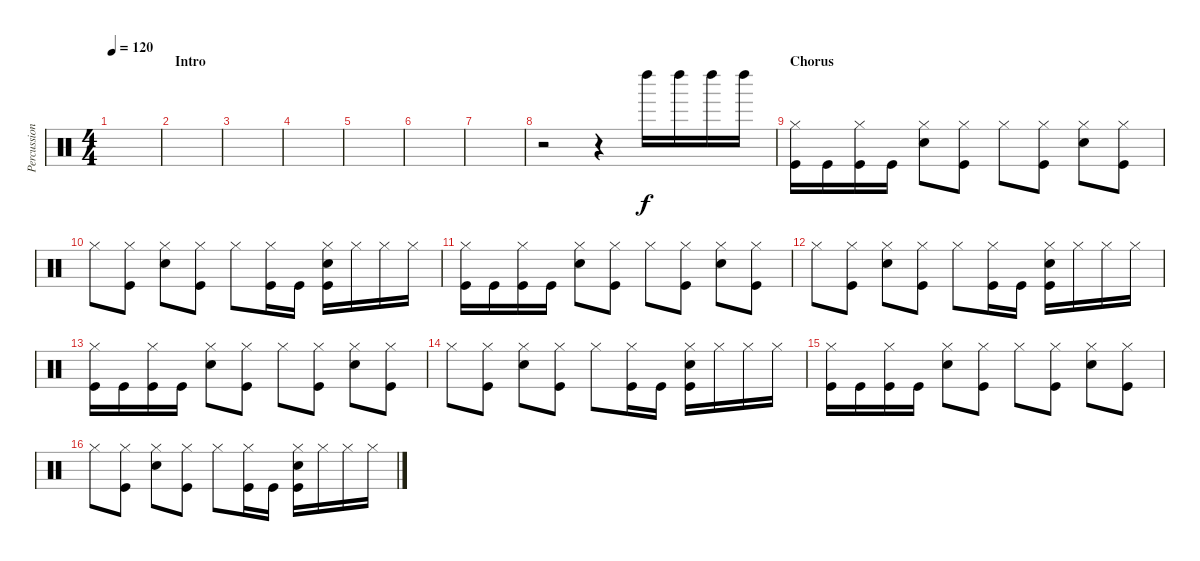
\track ("Percussion" "Percussion") {instrument percussion}
\staff {score}
\articulation defaults
\ts (4 4)
\tempo 120
\clef neutral
\ks c
|
\section ("" "Intro")
|
|
|
|
|
|
r.2 r.4 "Left Maraca (hit)".16 "Left Maraca (hit)".16 "Left Maraca (hit)".16 "Left Maraca (hit)".16 |
\section ("" "Chorus")
("Kick (hit)" "Hi-Hat (closed)").16 "Kick (hit)".16 ("Kick (hit)" "Hi-Hat (closed)").16 "Kick (hit)".16 ("Hi-Hat (closed)" "Hand Clap (hit)").8 ("Kick (hit)" "Hi-Hat (closed)").8 "Hi-Hat (closed)".8 ("Kick (hit)" "Hi-Hat (closed)").8 ("Hi-Hat (closed)" "Hand Clap (hit)").8 ("Kick (hit)" "Hi-Hat (closed)").8 |
"Hi-Hat (closed)".8 ("Kick (hit)" "Hi-Hat (closed)").8 ("Hi-Hat (closed)" "Hand Clap (hit)").8 ("Kick (hit)" "Hi-Hat (closed)").8 "Hi-Hat (closed)".8 ("Kick (hit)" "Hi-Hat (closed)").16 "Kick (hit)".16 ("Kick (hit)" "Hi-Hat (closed)" "Hand Clap (hit)").16 "Hi-Hat (closed)".16 "Hi-Hat (closed)".16 "Hi-Hat (closed)".16 |
("Kick (hit)" "Hi-Hat (closed)").16 "Kick (hit)".16 ("Kick (hit)" "Hi-Hat (closed)").16 "Kick (hit)".16 ("Hi-Hat (closed)" "Hand Clap (hit)").8 ("Kick (hit)" "Hi-Hat (closed)").8 "Hi-Hat (closed)".8 ("Kick (hit)" "Hi-Hat (closed)").8 ("Hi-Hat (closed)" "Hand Clap (hit)").8 ("Kick (hit)" "Hi-Hat (closed)").8 |
"Hi-Hat (closed)".8 ("Kick (hit)" "Hi-Hat (closed)").8 ("Hi-Hat (closed)" "Hand Clap (hit)").8 ("Kick (hit)" "Hi-Hat (closed)").8 "Hi-Hat (closed)".8 ("Kick (hit)" "Hi-Hat (closed)").16 "Kick (hit)".16 ("Kick (hit)" "Hi-Hat (closed)" "Hand Clap (hit)").16 "Hi-Hat (closed)".16 "Hi-Hat (closed)".16 "Hi-Hat (closed)".16 |
("Kick (hit)" "Hi-Hat (closed)").16 "Kick (hit)".16 ("Kick (hit)" "Hi-Hat (closed)").16 "Kick (hit)".16 ("Hi-Hat (closed)" "Hand Clap (hit)").8 ("Kick (hit)" "Hi-Hat (closed)").8 "Hi-Hat (closed)".8 ("Kick (hit)" "Hi-Hat (closed)").8 ("Hi-Hat (closed)" "Hand Clap (hit)").8 ("Kick (hit)" "Hi-Hat (closed)").8 |
"Hi-Hat (closed)".8 ("Kick (hit)" "Hi-Hat (closed)").8 ("Hi-Hat (closed)" "Hand Clap (hit)").8 ("Kick (hit)" "Hi-Hat (closed)").8 "Hi-Hat (closed)".8 ("Kick (hit)" "Hi-Hat (closed)").16 "Kick (hit)".16 ("Kick (hit)" "Hi-Hat (closed)" "Hand Clap (hit)").16 "Hi-Hat (closed)".16 "Hi-Hat (closed)".16 "Hi-Hat (closed)".16 |
("Kick (hit)" "Hi-Hat (closed)").16 "Kick (hit)".16 ("Kick (hit)" "Hi-Hat (closed)").16 "Kick (hit)".16 ("Hi-Hat (closed)" "Hand Clap (hit)").8 ("Kick (hit)" "Hi-Hat (closed)").8 "Hi-Hat (closed)".8 ("Kick (hit)" "Hi-Hat (closed)").8 ("Hi-Hat (closed)" "Hand Clap (hit)").8 ("Kick (hit)" "Hi-Hat (closed)").8 |
"Hi-Hat (closed)".8 ("Kick (hit)" "Hi-Hat (closed)").8 ("Hi-Hat (closed)" "Hand Clap (hit)").8 ("Kick (hit)" "Hi-Hat (closed)").8 "Hi-Hat (closed)".8 ("Kick (hit)" "Hi-Hat (closed)").16 "Kick (hit)".16 ("Kick (hit)" "Hi-Hat (closed)" "Hand Clap (hit)").16 "Hi-Hat (closed)".16 "Hi-Hat (closed)".16 "Hi-Hat (closed)".16
